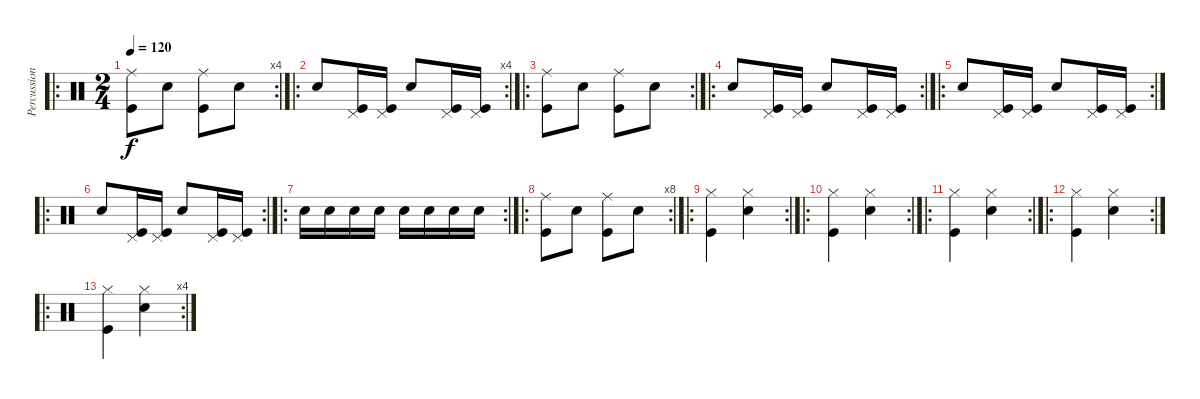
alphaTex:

\track ("Percussion" "Percussion") {instrument percussion}
\staff {score}
\articulation defaults
\ro
\rc 4
\ts (2 4)
\tempo 120
\clef neutral
\ks c
("Ride (middle)" "Kick (hit)").8{dy f} "Snare (hit) 2".8 ("Ride (middle)" "Kick (hit)").8 "Snare (hit) 2".8 |
\ro
\rc 4 "Snare (hit) 2".8
("Pedal Hi-Hat (hit)" "Kick (hit)").16 ("Pedal Hi-Hat (hit)" "Kick (hit)").16 "Snare (hit) 2".8 ("Pedal Hi-Hat (hit)" "Kick (hit)").16 ("Pedal Hi-Hat (hit)" "Kick (hit)").16 |
\ro
\rc 2
("Ride (middle)" "Kick (hit)").8 "Snare (hit) 2".8 ("Ride (middle)" "Kick (hit)").8 "Snare (hit) 2".8 |
\ro
\rc 2 "Snare (hit) 2".8
("Pedal Hi-Hat (hit)" "Kick (hit)").16 ("Pedal Hi-Hat (hit)" "Kick (hit)").16 "Snare (hit) 2".8 ("Pedal Hi-Hat (hit)" "Kick (hit)").16 ("Pedal Hi-Hat (hit)" "Kick (hit)").16 |
\ro
\rc 2 "Snare (hit) 2".8
("Pedal Hi-Hat (hit)" "Kick (hit)").16 ("Pedal Hi-Hat (hit)" "Kick (hit)").16 "Snare (hit) 2".8 ("Pedal Hi-Hat (hit)" "Kick (hit)").16 ("Pedal Hi-Hat (hit)" "Kick (hit)").16 |
\ro
\rc 2 "Snare (hit) 2".8
("Pedal Hi-Hat (hit)" "Kick (hit)").16 ("Pedal Hi-Hat (hit)" "Kick (hit)").16 "Snare (hit) 2".8 ("Pedal Hi-Hat (hit)" "Kick (hit)").16 ("Pedal Hi-Hat (hit)" "Kick (hit)").16 |
\ro
\rc 2 "Snare (hit) 2".16 "Snare (hit) 2".16 "Snare (hit) 2".16 "Snare (hit) 2".16 "Snare (hit) 2".16 "Snare (hit) 2".16 "Snare (hit) 2".16 "Snare (hit) 2".16
|
\ro
\rc 8
("Ride (middle)" "Kick (hit)").8 "Snare (hit) 2".8 ("Ride (middle)" "Kick (hit)").8 "Snare (hit) 2".8 |
\ro
\rc 2
("Hi-Hat (closed)" "Kick (hit)").4 ("Hi-Hat (closed)" "Snare (hit) 2").4 |
\ro
\rc 2
("Hi-Hat (closed)" "Kick (hit)").4 ("Hi-Hat (closed)" "Snare (hit) 2").4 |
\ro
\rc 2
("Hi-Hat (closed)" "Kick (hit)").4 ("Hi-Hat (closed)" "Snare (hit) 2").4 |
\ro
\rc 2
("Hi-Hat (closed)" "Kick (hit)").4 ("Hi-Hat (closed)" "Snare (hit) 2").4 |
\ro
\rc 4
("Hi-Hat (closed)" "Kick (hit)").4 ("Hi-Hat (closed)" "Snare (hit) 2").4
